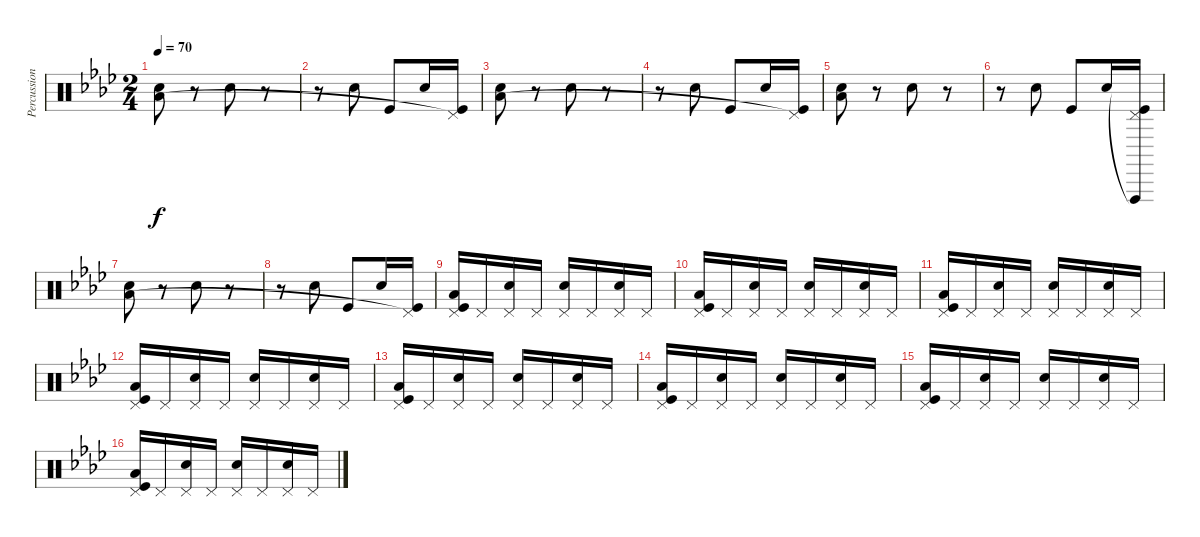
\track ("Percussion" "Percussion") {instrument percussion}
\staff {score}
\articulation defaults
\ts (2 4)
\tempo 70
\clef neutral
\ks fminor
("Electric Snare (hit)" "Low Floor Tom (hit)").8{dy f} r.8 "Electric Snare (hit)".8 r.8 |
r.8 "Electric Snare (hit)".8 "Kick (hit)".8 "Electric Snare (hit)".16 ("Kick (hit)" "Pedal Hi-Hat (hit)"{t}).16 |
("Electric Snare (hit)" "Low Floor Tom (hit)").8 r.8 "Electric Snare (hit)".8 r.8 |
r.8 "Electric Snare (hit)".8 "Kick (hit)".8 "Electric Snare (hit)".16 ("Kick (hit)" "Pedal Hi-Hat (hit)"{t}).16 |
("Electric Snare (hit)" "Low Floor Tom (hit)").8 r.8 "Electric Snare (hit)".8 r.8 |
r.8 "Electric Snare (hit)".8 "Kick (hit)".8 "Electric Snare (hit)".16 ("Vibraslap (hit)"{t} "Kick (hit)" "Pedal Hi-Hat (hit)").16 |
("Electric Snare (hit)" "Low Floor Tom (hit)").8 r.8 "Electric Snare (hit)".8 r.8 |
r.8 "Electric Snare (hit)".8 "Kick (hit)".8 "Electric Snare (hit)".16 ("Kick (hit)" "Pedal Hi-Hat (hit)"{t}).16 |
("Kick (hit)" "Pedal Hi-Hat (hit)" "Low Floor Tom (hit)").16 "Pedal Hi-Hat (hit)".16 ("Electric Snare (hit)" "Pedal Hi-Hat (hit)").16 "Pedal Hi-Hat (hit)".16 ("Electric Snare (hit)" "Pedal Hi-Hat (hit)").16 "Pedal Hi-Hat (hit)".16 ("Electric Snare (hit)" "Pedal Hi-Hat (hit)").16 "Pedal Hi-Hat (hit)".16 |
("Kick (hit)" "Pedal Hi-Hat (hit)" "Low Floor Tom (hit)").16 "Pedal Hi-Hat (hit)".16 ("Electric Snare (hit)" "Pedal Hi-Hat (hit)").16 "Pedal Hi-Hat (hit)".16 ("Electric Snare (hit)" "Pedal Hi-Hat (hit)").16 "Pedal Hi-Hat (hit)".16 ("Electric Snare (hit)" "Pedal Hi-Hat (hit)").16 "Pedal Hi-Hat (hit)".16 |
("Kick (hit)" "Pedal Hi-Hat (hit)" "Low Floor Tom (hit)").16 "Pedal Hi-Hat (hit)".16 ("Electric Snare (hit)" "Pedal Hi-Hat (hit)").16 "Pedal Hi-Hat (hit)".16 ("Electric Snare (hit)" "Pedal Hi-Hat (hit)").16 "Pedal Hi-Hat (hit)".16 ("Electric Snare (hit)" "Pedal Hi-Hat (hit)").16 "Pedal Hi-Hat (hit)".16 |
("Kick (hit)" "Pedal Hi-Hat (hit)" "Low Floor Tom (hit)").16 "Pedal Hi-Hat (hit)".16 ("Electric Snare (hit)" "Pedal Hi-Hat (hit)").16 "Pedal Hi-Hat (hit)".16 ("Electric Snare (hit)" "Pedal Hi-Hat (hit)").16 "Pedal Hi-Hat (hit)".16 ("Electric Snare (hit)" "Pedal Hi-Hat (hit)").16 "Pedal Hi-Hat (hit)".16 |
("Kick (hit)" "Pedal Hi-Hat (hit)" "Low Floor Tom (hit)").16 "Pedal Hi-Hat (hit)".16 ("Electric Snare (hit)" "Pedal Hi-Hat (hit)").16 "Pedal Hi-Hat (hit)".16 ("Electric Snare (hit)" "Pedal Hi-Hat (hit)").16 "Pedal Hi-Hat (hit)".16 ("Electric Snare (hit)" "Pedal Hi-Hat (hit)").16 "Pedal Hi-Hat (hit)".16 |
("Kick (hit)" "Pedal Hi-Hat (hit)" "Low Floor Tom (hit)").16 "Pedal Hi-Hat (hit)".16 ("Electric Snare (hit)" "Pedal Hi-Hat (hit)").16 "Pedal Hi-Hat (hit)".16 ("Electric Snare (hit)" "Pedal Hi-Hat (hit)").16 "Pedal Hi-Hat (hit)".16 ("Electric Snare (hit)" "Pedal Hi-Hat (hit)").16 "Pedal Hi-Hat (hit)".16 |
("Kick (hit)" "Pedal Hi-Hat (hit)" "Low Floor Tom (hit)").16 "Pedal Hi-Hat (hit)".16 ("Electric Snare (hit)" "Pedal Hi-Hat (hit)").16 "Pedal Hi-Hat (hit)".16 ("Electric Snare (hit)" "Pedal Hi-Hat (hit)").16 "Pedal Hi-Hat (hit)".16 ("Electric Snare (hit)" "Pedal Hi-Hat (hit)").16 "Pedal Hi-Hat (hit)".16 |
("Kick (hit)" "Pedal Hi-Hat (hit)" "Low Floor Tom (hit)").16 "Pedal Hi-Hat (hit)".16 ("Electric Snare (hit)" "Pedal Hi-Hat (hit)").16 "Pedal Hi-Hat (hit)".16 ("Electric Snare (hit)" "Pedal Hi-Hat (hit)").16 "Pedal Hi-Hat (hit)".16 ("Electric Snare (hit)" "Pedal Hi-Hat (hit)").16 "Pedal Hi-Hat (hit)".16
